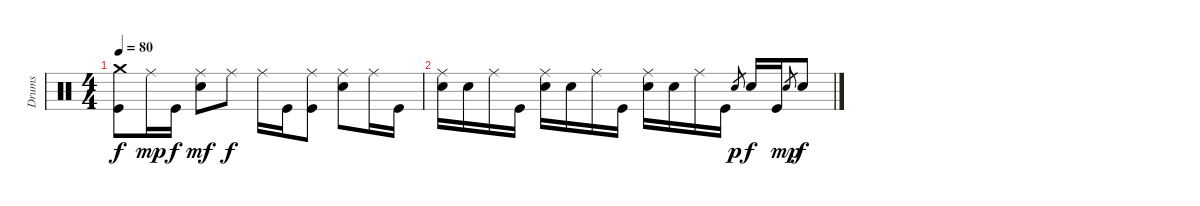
\track ("Drums" "Drums") {instrument percussion}
\staff {score}
\articulation defaults
\ts (4 4)
\tempo 80
\clef neutral
\ks c
("Crash medium (hit)" "Kick (hit)").8{dy f} "Ride (middle)".16{dy mp} "Kick (hit)".16{dy f} ("Ride (middle)" "Snare (hit) 2").8{dy mf} "Ride (middle)".8{dy f} "Ride (middle)".16 "Kick (hit)".16 ("Ride (middle)" "Kick (hit)").8 ("Ride (middle)" "Snare (hit) 2").8 "Ride (middle)".16 "Kick (hit)".16 |
("Ride (middle)" "Snare (hit) 2").16 "Snare (hit) 2".16 "Ride (middle)".16 "Kick (hit)".16 ("Ride (middle)" "Snare (hit) 2").16 "Snare (hit) 2".16 "Ride (middle)".16 "Kick (hit)".16 ("Ride (middle)" "Snare (hit) 2").16 "Snare (hit) 2".16 "Ride (middle)".16 "Kick (hit)".16 "Snare (hit) 2".8{gr dy p} "Snare (hit) 2".16{dy f} "Kick (hit)".16 "Snare (hit) 2".8{gr dy mp} "Snare (hit) 2".8{dy f}
